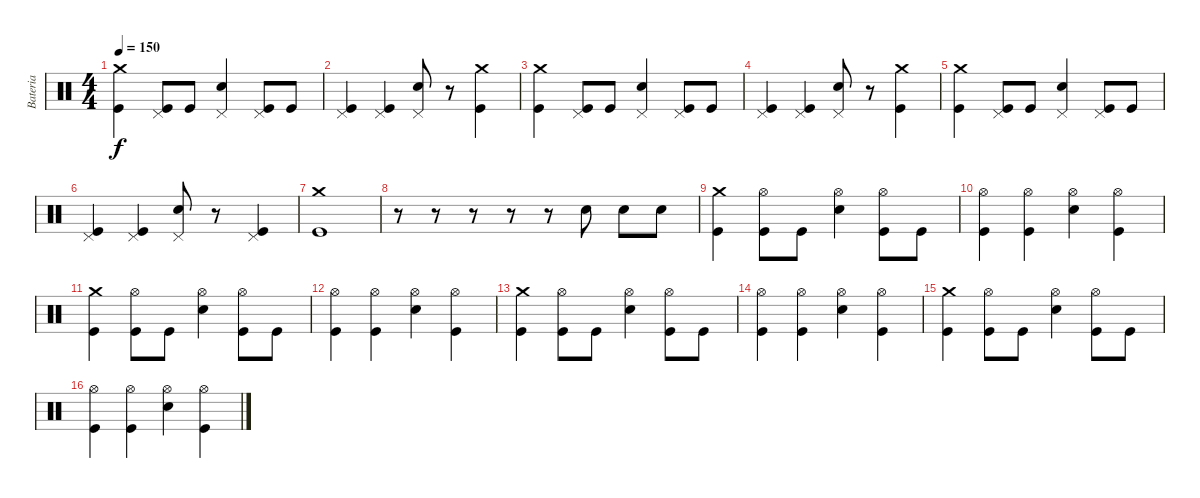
\track ("Bateria" "Bateria") {instrument percussion}
\staff {score}
\articulation defaults
\ts (4 4)
\tempo 150
\clef neutral
\ks c
("Crash medium (hit)" "Kick (hit)").4{dy f} ("Pedal Hi-Hat (hit)" "Kick (hit)").8 "Kick (hit)".8 ("Pedal Hi-Hat (hit)" "Snare (hit) 2").4 ("Pedal Hi-Hat (hit)" "Kick (hit)").8 "Kick (hit)".8 |
("Pedal Hi-Hat (hit)" "Kick (hit)").4 ("Pedal Hi-Hat (hit)" "Kick (hit)").4 ("Pedal Hi-Hat (hit)" "Snare (hit) 2").8 r.8 ("Crash medium (hit)" "Kick (hit)").4 |
("Crash medium (hit)" "Kick (hit)").4 ("Pedal Hi-Hat (hit)" "Kick (hit)").8 "Kick (hit)".8 ("Pedal Hi-Hat (hit)" "Snare (hit) 2").4 ("Pedal Hi-Hat (hit)" "Kick (hit)").8 "Kick (hit)".8 |
("Pedal Hi-Hat (hit)" "Kick (hit)").4 ("Pedal Hi-Hat (hit)" "Kick (hit)").4 ("Pedal Hi-Hat (hit)" "Snare (hit) 2").8 r.8 ("Crash medium (hit)" "Kick (hit)").4 |
("Crash medium (hit)" "Kick (hit)").4 ("Pedal Hi-Hat (hit)" "Kick (hit)").8 "Kick (hit)".8 ("Pedal Hi-Hat (hit)" "Snare (hit) 2").4 ("Pedal Hi-Hat (hit)" "Kick (hit)").8 "Kick (hit)".8 |
("Pedal Hi-Hat (hit)" "Kick (hit)").4 ("Pedal Hi-Hat (hit)" "Kick (hit)").4 ("Pedal Hi-Hat (hit)" "Snare (hit) 2").8 r.8 ("Pedal Hi-Hat (hit)" "Kick (hit)").4 |
("Crash medium (hit)" "Kick (hit)").1 |
r.8 r.8 r.8 r.8 r.8 "Snare (hit) 2".8 "Snare (hit) 2".8 "Snare (hit) 2".8 |
("Crash medium (hit)" "Kick (hit)").4 ("Hi-Hat (open)" "Kick (hit)").8 "Kick (hit)".8 ("Hi-Hat (open)" "Snare (hit) 2").4 ("Hi-Hat (open)" "Kick (hit)").8 "Kick (hit)".8 |
("Hi-Hat (open)" "Kick (hit)").4 ("Hi-Hat (open)" "Kick (hit)").4 ("Hi-Hat (open)" "Snare (hit) 2").4 ("Hi-Hat (open)" "Kick (hit)").4 |
("Crash medium (hit)" "Kick (hit)").4 ("Hi-Hat (open)" "Kick (hit)").8 "Kick (hit)".8 ("Hi-Hat (open)" "Snare (hit) 2").4 ("Hi-Hat (open)" "Kick (hit)").8 "Kick (hit)".8 |
("Hi-Hat (open)" "Kick (hit)").4 ("Hi-Hat (open)" "Kick (hit)").4 ("Hi-Hat (open)" "Snare (hit) 2").4 ("Hi-Hat (open)" "Kick (hit)").4 |
("Crash medium (hit)" "Kick (hit)").4 ("Hi-Hat (open)" "Kick (hit)").8 "Kick (hit)".8 ("Hi-Hat (open)" "Snare (hit) 2").4 ("Hi-Hat (open)" "Kick (hit)").8 "Kick (hit)".8 |
("Hi-Hat (open)" "Kick (hit)").4 ("Hi-Hat (open)" "Kick (hit)").4 ("Hi-Hat (open)" "Snare (hit) 2").4 ("Hi-Hat (open)" "Kick (hit)").4 |
("Crash medium (hit)" "Kick (hit)").4 ("Hi-Hat (open)" "Kick (hit)").8 "Kick (hit)".8 ("Hi-Hat (open)" "Snare (hit) 2").4 ("Hi-Hat (open)" "Kick (hit)").8 "Kick (hit)".8 |
("Hi-Hat (open)" "Kick (hit)").4 ("Hi-Hat (open)" "Kick (hit)").4 ("Hi-Hat (open)" "Snare (hit) 2").4 ("Hi-Hat (open)" "Kick (hit)").4
